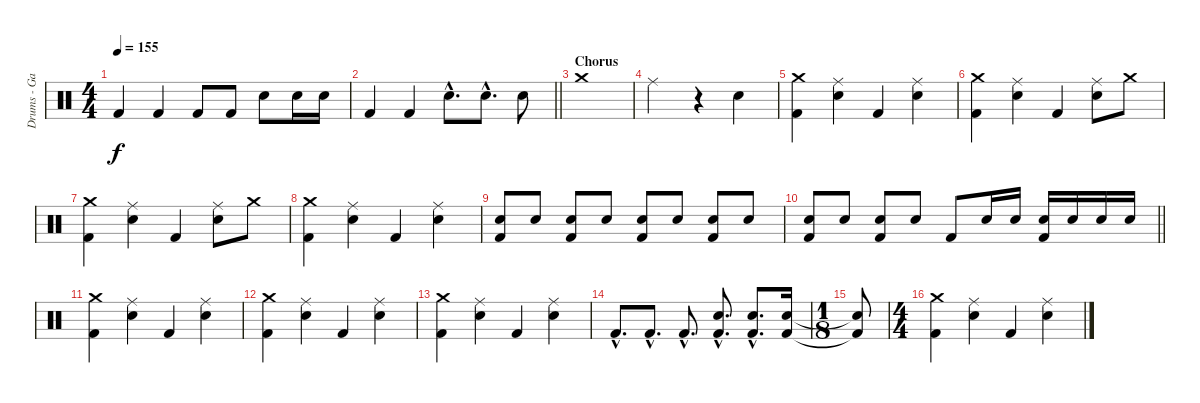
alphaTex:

\track ("Drums - Gary" "Drums - Ga") {instrument percussion}
\staff {score}
\articulation defaults
\ts (4 4)
\tempo 155
\clef neutral
\ks c "Kick (hit) 2".4{dy f} "Kick (hit) 2".4 "Kick (hit) 2".8 "Kick (hit) 2".8 "Snare (hit) 2".8 "Snare (hit) 2".16 "Snare (hit) 2".16
|
\barLineRight lightlight "Kick (hit) 2".4 "Kick (hit) 2".4 "Snare (hit) 2"{hac}.8{d} "Snare (hit) 2"{hac}.8{d} "Snare (hit) 2".8
|
\section ("" "Chorus")
"Crash medium (hit)".1 |
"Ride (middle)".2 r.4 "Snare (hit) 2".4 |
("Crash medium (hit)" "Kick (hit) 2").4 ("Snare (hit) 2" "Ride (middle)").4 "Kick (hit) 2".4 ("Snare (hit) 2" "Ride (middle)").4 |
("Crash medium (hit)" "Kick (hit) 2").4 ("Snare (hit) 2" "Ride (middle)").4 "Kick (hit) 2".4 ("Snare (hit) 2" "Ride (middle)").8 "Crash medium (hit)".8 |
("Crash medium (hit)" "Kick (hit) 2").4 ("Snare (hit) 2" "Ride (middle)").4 "Kick (hit) 2".4 ("Snare (hit) 2" "Ride (middle)").8 "Crash medium (hit)".8 |
("Crash medium (hit)" "Kick (hit) 2").4 ("Snare (hit) 2" "Ride (middle)").4 "Kick (hit) 2".4 ("Snare (hit) 2" "Ride (middle)").4 |
("Snare (hit) 2" "Kick (hit) 2").8 "Snare (hit) 2".8 ("Snare (hit) 2" "Kick (hit) 2").8 "Snare (hit) 2".8 ("Snare (hit) 2" "Kick (hit) 2").8 "Snare (hit) 2".8 ("Snare (hit) 2" "Kick (hit) 2").8 "Snare (hit) 2".8 |
\barLineRight lightlight
("Snare (hit) 2" "Kick (hit) 2").8 "Snare (hit) 2".8 ("Snare (hit) 2" "Kick (hit) 2").8 "Snare (hit) 2".8 "Kick (hit) 2".8 "Snare (hit) 2".16 "Snare (hit) 2".16 ("Snare (hit) 2" "Kick (hit) 2").16 "Snare (hit) 2".16 "Snare (hit) 2".16 "Snare (hit) 2".16 |
("Crash medium (hit)" "Kick (hit) 2").4 ("Snare (hit) 2" "Ride (middle)").4 "Kick (hit) 2".4 ("Snare (hit) 2" "Ride (middle)").4 |
("Crash medium (hit)" "Kick (hit) 2").4 ("Snare (hit) 2" "Ride (middle)").4 "Kick (hit) 2".4 ("Snare (hit) 2" "Ride (middle)").4 |
("Crash medium (hit)" "Kick (hit) 2").4 ("Snare (hit) 2" "Ride (middle)").4 "Kick (hit) 2".4 ("Snare (hit) 2" "Ride (middle)").4 |
"Kick (hit) 2"{hac}.8{d} "Kick (hit) 2"{hac}.8{d} "Kick (hit) 2"{hac}.8{d} ("Snare (hit) 2"{hac} "Kick (hit) 2"{hac}).8{d} ("Snare (hit) 2"{hac} "Kick (hit) 2"{hac}).8{d} ("Snare (hit) 2" "Kick (hit) 2").16 |
\ts (1 8)
("Snare (hit) 2"{t} "Kick (hit) 2"{t}).8 |
\ts (4 4)
("Crash medium (hit)" "Kick (hit) 2").4 ("Snare (hit) 2" "Ride (middle)").4 "Kick (hit) 2".4 ("Snare (hit) 2" "Ride (middle)").4
